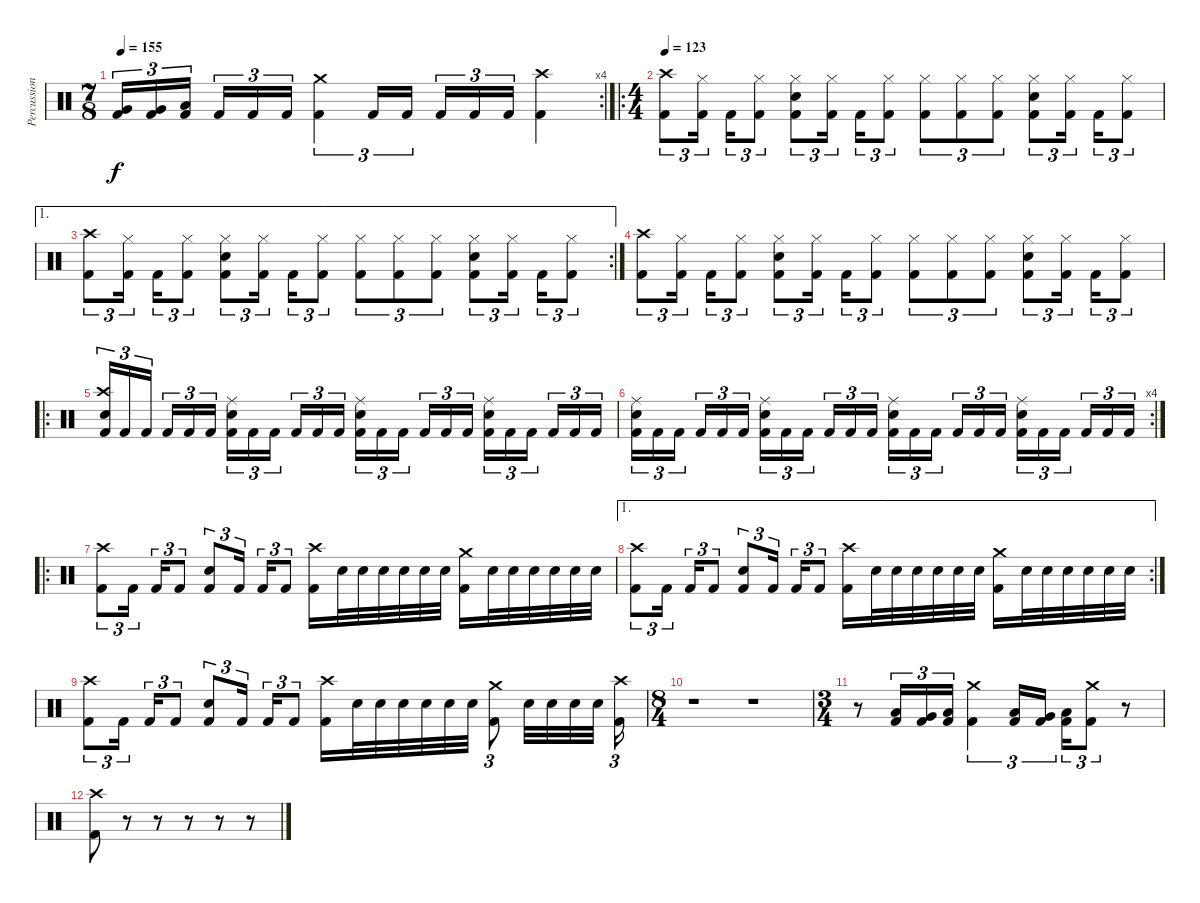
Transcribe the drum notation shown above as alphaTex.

\track ("Percussion" "Percussion") {instrument percussion}
\staff {score}
\articulation defaults
\rc 4
\ts (7 8)
\tempo 155
\clef neutral
\ks c
("Very Low Tom (hit)" "Kick (hit) 2").16{tu (3 2) dy f} ("Very Low Tom (hit)" "Kick (hit) 2").16{tu (3 2)} ("Low Floor Tom (hit)" "Kick (hit) 2").16{tu (3 2)} "Kick (hit) 2".16{tu (3 2)} "Kick (hit) 2".16{tu (3 2)} "Kick (hit) 2".16{tu (3 2)} ("Crash medium (hit)" "Kick (hit) 2").4{tu (3 2)} "Kick (hit) 2".16{tu (3 2)} "Kick (hit) 2".16{tu (3 2)} "Kick (hit) 2".16{tu (3 2)} "Kick (hit) 2".16{tu (3 2)} "Kick (hit) 2".16{tu (3 2)} ("Crash high (hit)" "Kick (hit) 2").4 |
\ro
\ts (4 4)
\tempo 123
("Crash high (hit)" "Kick (hit) 2").8{tu (3 2)} ("Hi-Hat (closed)" "Kick (hit) 2").16{tu (3 2)} "Kick (hit) 2".16{tu (3 2)} ("Hi-Hat (closed)" "Kick (hit) 2").8{tu (3 2)} ("Hi-Hat (closed)" "Snare (hit) 2" "Kick (hit) 2").8{tu (3 2)} ("Hi-Hat (closed)" "Kick (hit) 2").16{tu (3 2)} "Kick (hit) 2".16{tu (3 2)} ("Hi-Hat (closed)" "Kick (hit) 2").8{tu (3 2)} ("Hi-Hat (closed)" "Kick (hit) 2").8{tu (3 2)} ("Hi-Hat (closed)" "Kick (hit) 2").8{tu (3 2)} ("Hi-Hat (closed)" "Kick (hit) 2").8{tu (3 2)} ("Hi-Hat (closed)" "Snare (hit) 2" "Kick (hit) 2").8{tu (3 2)} ("Hi-Hat (closed)" "Kick (hit) 2").16{tu (3 2)} "Kick (hit) 2".16{tu (3 2)} ("Hi-Hat (closed)" "Kick (hit) 2").8{tu (3 2)} |
\ae 1
\rc 2
("Crash high (hit)" "Kick (hit) 2").8{tu (3 2)} ("Hi-Hat (closed)" "Kick (hit) 2").16{tu (3 2)} "Kick (hit) 2".16{tu (3 2)} ("Hi-Hat (closed)" "Kick (hit) 2").8{tu (3 2)} ("Hi-Hat (closed)" "Snare (hit) 2" "Kick (hit) 2").8{tu (3 2)} ("Hi-Hat (closed)" "Kick (hit) 2").16{tu (3 2)} "Kick (hit) 2".16{tu (3 2)} ("Hi-Hat (closed)" "Kick (hit) 2").8{tu (3 2)} ("Hi-Hat (closed)" "Kick (hit) 2").8{tu (3 2)} ("Hi-Hat (closed)" "Kick (hit) 2").8{tu (3 2)} ("Hi-Hat (closed)" "Kick (hit) 2").8{tu (3 2)} ("Hi-Hat (closed)" "Snare (hit) 2" "Kick (hit) 2").8{tu (3 2)} ("Hi-Hat (closed)" "Kick (hit) 2").16{tu (3 2)} "Kick (hit) 2".16{tu (3 2)} ("Hi-Hat (closed)" "Kick (hit) 2").8{tu (3 2)} |
("Crash high (hit)" "Kick (hit) 2").8{tu (3 2)} ("Hi-Hat (closed)" "Kick (hit) 2").16{tu (3 2)} "Kick (hit) 2".16{tu (3 2)} ("Hi-Hat (closed)" "Kick (hit) 2").8{tu (3 2)} ("Hi-Hat (closed)" "Snare (hit) 2" "Kick (hit) 2").8{tu (3 2)} ("Hi-Hat (closed)" "Kick (hit) 2").16{tu (3 2)} "Kick (hit) 2".16{tu (3 2)} ("Hi-Hat (closed)" "Kick (hit) 2").8{tu (3 2)} ("Hi-Hat (closed)" "Kick (hit) 2").8{tu (3 2)} ("Hi-Hat (closed)" "Kick (hit) 2").8{tu (3 2)} ("Hi-Hat (closed)" "Kick (hit) 2").8{tu (3 2)} ("Hi-Hat (closed)" "Snare (hit) 2" "Kick (hit) 2").8{tu (3 2)} ("Hi-Hat (closed)" "Kick (hit) 2").16{tu (3 2)} "Kick (hit) 2".16{tu (3 2)} ("Hi-Hat (closed)" "Kick (hit) 2").8{tu (3 2)} |
\ro
("Crash high (hit)" "Snare (hit) 2" "Kick (hit) 2").16{tu (3 2)} "Kick (hit) 2".16{tu (3 2)} "Kick (hit) 2".16{tu (3 2)} "Kick (hit) 2".16{tu (3 2)} "Kick (hit) 2".16{tu (3 2)} "Kick (hit) 2".16{tu (3 2)} ("Ride (middle)" "Snare (hit) 2" "Kick (hit) 2").16{tu (3 2)} "Kick (hit) 2".16{tu (3 2)} "Kick (hit) 2".16{tu (3 2)} "Kick (hit) 2".16{tu (3 2)} "Kick (hit) 2".16{tu (3 2)} "Kick (hit) 2".16{tu (3 2)} ("Ride (middle)" "Snare (hit) 2" "Kick (hit) 2").16{tu (3 2)} "Kick (hit) 2".16{tu (3 2)} "Kick (hit) 2".16{tu (3 2)} "Kick (hit) 2".16{tu (3 2)} "Kick (hit) 2".16{tu (3 2)} "Kick (hit) 2".16{tu (3 2)} ("Ride (middle)" "Snare (hit) 2" "Kick (hit) 2").16{tu (3 2)} "Kick (hit) 2".16{tu (3 2)} "Kick (hit) 2".16{tu (3 2)} "Kick (hit) 2".16{tu (3 2)} "Kick (hit) 2".16{tu (3 2)} "Kick (hit) 2".16{tu (3 2)} |
\rc 4
("Ride (middle)" "Snare (hit) 2" "Kick (hit) 2").16{tu (3 2)} "Kick (hit) 2".16{tu (3 2)} "Kick (hit) 2".16{tu (3 2)} "Kick (hit) 2".16{tu (3 2)} "Kick (hit) 2".16{tu (3 2)} "Kick (hit) 2".16{tu (3 2)} ("Ride (middle)" "Snare (hit) 2" "Kick (hit) 2").16{tu (3 2)} "Kick (hit) 2".16{tu (3 2)} "Kick (hit) 2".16{tu (3 2)} "Kick (hit) 2".16{tu (3 2)} "Kick (hit) 2".16{tu (3 2)} "Kick (hit) 2".16{tu (3 2)} ("Ride (middle)" "Snare (hit) 2" "Kick (hit) 2").16{tu (3 2)} "Kick (hit) 2".16{tu (3 2)} "Kick (hit) 2".16{tu (3 2)} "Kick (hit) 2".16{tu (3 2)} "Kick (hit) 2".16{tu (3 2)} "Kick (hit) 2".16{tu (3 2)} ("Ride (middle)" "Snare (hit) 2" "Kick (hit) 2").16{tu (3 2)} "Kick (hit) 2".16{tu (3 2)} "Kick (hit) 2".16{tu (3 2)} "Kick (hit) 2".16{tu (3 2)} "Kick (hit) 2".16{tu (3 2)} "Kick (hit) 2".16{tu (3 2)} |
\ro
("Crash high (hit)" "Kick (hit) 2").8{tu (3 2)} "Kick (hit) 2".16{tu (3 2)} "Kick (hit) 2".16{tu (3 2)} "Kick (hit) 2".8{tu (3 2)} ("Snare (hit) 2" "Kick (hit) 2").8{tu (3 2)} "Kick (hit) 2".16{tu (3 2)} "Kick (hit) 2".16{tu (3 2)} "Kick (hit) 2".8{tu (3 2)} ("Crash high (hit)" "Kick (hit) 2").16 "Snare (hit) 2".32 "Snare (hit) 2".32 "Snare (hit) 2".32 "Snare (hit) 2".32 "Snare (hit) 2".32 "Snare (hit) 2".32 ("Crash medium (hit)" "Kick (hit) 2").16 "Snare (hit) 2".32 "Snare (hit) 2".32 "Snare (hit) 2".32 "Snare (hit) 2".32 "Snare (hit) 2".32 "Snare (hit) 2".32 |
\ae 1
\rc 2
("Crash high (hit)" "Kick (hit) 2").8{tu (3 2)} "Kick (hit) 2".16{tu (3 2)} "Kick (hit) 2".16{tu (3 2)} "Kick (hit) 2".8{tu (3 2)} ("Snare (hit) 2" "Kick (hit) 2").8{tu (3 2)} "Kick (hit) 2".16{tu (3 2)} "Kick (hit) 2".16{tu (3 2)} "Kick (hit) 2".8{tu (3 2)} ("Crash high (hit)" "Kick (hit) 2").16 "Snare (hit) 2".32 "Snare (hit) 2".32 "Snare (hit) 2".32 "Snare (hit) 2".32 "Snare (hit) 2".32 "Snare (hit) 2".32 ("Crash medium (hit)" "Kick (hit) 2").16 "Snare (hit) 2".32 "Snare (hit) 2".32 "Snare (hit) 2".32 "Snare (hit) 2".32 "Snare (hit) 2".32 "Snare (hit) 2".32 |
("Crash high (hit)" "Kick (hit) 2").8{tu (3 2)} "Kick (hit) 2".16{tu (3 2)} "Kick (hit) 2".16{tu (3 2)} "Kick (hit) 2".8{tu (3 2)} ("Snare (hit) 2" "Kick (hit) 2").8{tu (3 2)} "Kick (hit) 2".16{tu (3 2)} "Kick (hit) 2".16{tu (3 2)} "Kick (hit) 2".8{tu (3 2)} ("Crash high (hit)" "Kick (hit) 2").16 "Snare (hit) 2".32 "Snare (hit) 2".32 "Snare (hit) 2".32 "Snare (hit) 2".32 "Snare (hit) 2".32 "Snare (hit) 2".32 ("Crash medium (hit)" "Kick (hit) 2").8{tu (3 2)} "Snare (hit) 2".32 "Snare (hit) 2".32 "Snare (hit) 2".32 "Snare (hit) 2".32 ("Crash high (hit)" "Kick (hit) 2").16{tu (3 2)} |
\ts (8 4)
r.1 r.1 |
\ts (3 4)
r.8 ("Low Tom (hit)" "Kick (hit) 2").16{tu (3 2)} ("Very Low Tom (hit)" "Kick (hit) 2").16{tu (3 2)} ("Low Floor Tom (hit)" "Kick (hit) 2").16{tu (3 2)} ("Crash medium (hit)" "Kick (hit) 2").4{tu (3 2)} ("Low Tom (hit)" "Kick (hit) 2").16{tu (3 2)} ("Very Low Tom (hit)" "Kick (hit) 2").16{tu (3 2)} ("Low Floor Tom (hit)" "Kick (hit) 2").16{tu (3 2)} ("Crash medium (hit)" "Kick (hit) 2").8{tu (3 2)} r.8 |
("Crash high (hit)" "Kick (hit) 2").8 r.8 r.8 r.8 r.8 r.8
